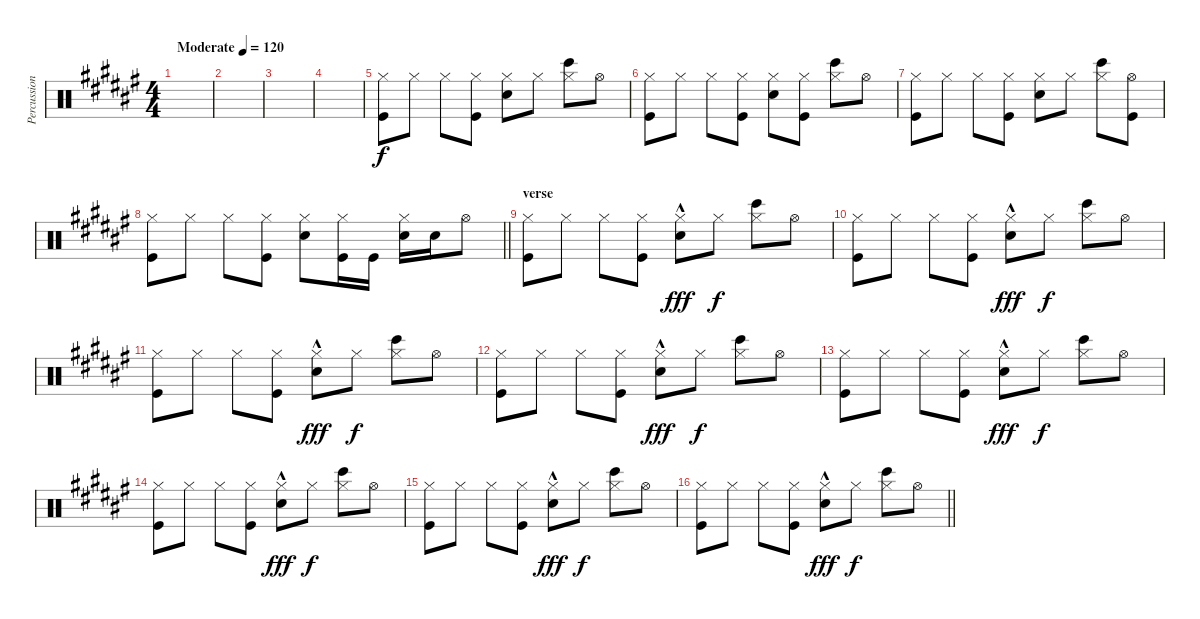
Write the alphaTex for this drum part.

\track ("Percussion" "Percussion") {instrument percussion}
\staff {score}
\articulation defaults
\ts (4 4)
\tempo (120 "Moderate")
\clef neutral
\ks f#
|
|
|
|
("Kick (hit)" "Hi-Hat (closed)").8 "Hi-Hat (closed)".8 "Hi-Hat (closed)".8 ("Kick (hit)" "Hi-Hat (closed)").8 ("Hand Clap (hit)" "Hi-Hat (closed)").8 "Hi-Hat (closed)".8 ("Bongo High (hit)" "Hi-Hat (closed)").8 "Hi-Hat (open)".8 |
("Kick (hit)" "Hi-Hat (closed)").8 "Hi-Hat (closed)".8 "Hi-Hat (closed)".8 ("Kick (hit)" "Hi-Hat (closed)").8 ("Hand Clap (hit)" "Hi-Hat (closed)").8 ("Hi-Hat (closed)" "Kick (hit)").8 ("Bongo High (hit)" "Hi-Hat (closed)").8 "Hi-Hat (open)".8 |
("Kick (hit)" "Hi-Hat (closed)").8 "Hi-Hat (closed)".8 "Hi-Hat (closed)".8 ("Kick (hit)" "Hi-Hat (closed)").8 ("Hand Clap (hit)" "Hi-Hat (closed)").8 "Hi-Hat (closed)".8 ("Bongo High (hit)" "Hi-Hat (closed)").8 ("Kick (hit)" "Hi-Hat (open)").8 |
\barLineRight lightlight
("Kick (hit)" "Hi-Hat (closed)").8 "Hi-Hat (closed)".8 "Hi-Hat (closed)".8 ("Kick (hit)" "Hi-Hat (closed)").8 ("Hand Clap (hit)" "Hi-Hat (closed)").8 ("Hi-Hat (closed)" "Kick (hit)").16 "Kick (hit)".16 ("Electric Snare (hit)" "Hi-Hat (closed)").16 "Electric Snare (hit)".16 "Hi-Hat (open)".8 |
\section ("" "verse")
("Kick (hit)" "Hi-Hat (closed)").8 "Hi-Hat (closed)".8 "Hi-Hat (closed)".8 ("Kick (hit)" "Hi-Hat (closed)").8 ("Electric Snare (hit)"{hac} "Hi-Hat (closed)").8{dy fff} "Hi-Hat (closed)".8{dy f} ("Bongo High (hit)" "Hi-Hat (closed)").8 "Hi-Hat (open)".8 |
("Kick (hit)" "Hi-Hat (closed)").8 "Hi-Hat (closed)".8 "Hi-Hat (closed)".8 ("Kick (hit)" "Hi-Hat (closed)").8 ("Electric Snare (hit)"{hac} "Hi-Hat (closed)").8{dy fff} "Hi-Hat (closed)".8{dy f} ("Bongo High (hit)" "Hi-Hat (closed)").8 "Hi-Hat (open)".8 |
("Kick (hit)" "Hi-Hat (closed)").8 "Hi-Hat (closed)".8 "Hi-Hat (closed)".8 ("Kick (hit)" "Hi-Hat (closed)").8 ("Electric Snare (hit)"{hac} "Hi-Hat (closed)").8{dy fff} "Hi-Hat (closed)".8{dy f} ("Bongo High (hit)" "Hi-Hat (closed)").8 "Hi-Hat (open)".8 |
("Kick (hit)" "Hi-Hat (closed)").8 "Hi-Hat (closed)".8 "Hi-Hat (closed)".8 ("Kick (hit)" "Hi-Hat (closed)").8 ("Electric Snare (hit)"{hac} "Hi-Hat (closed)").8{dy fff} "Hi-Hat (closed)".8{dy f} ("Bongo High (hit)" "Hi-Hat (closed)").8 "Hi-Hat (open)".8 |
("Kick (hit)" "Hi-Hat (closed)").8 "Hi-Hat (closed)".8 "Hi-Hat (closed)".8 ("Kick (hit)" "Hi-Hat (closed)").8 ("Electric Snare (hit)"{hac} "Hi-Hat (closed)").8{dy fff} "Hi-Hat (closed)".8{dy f} ("Bongo High (hit)" "Hi-Hat (closed)").8 "Hi-Hat (open)".8 |
("Kick (hit)" "Hi-Hat (closed)").8 "Hi-Hat (closed)".8 "Hi-Hat (closed)".8 ("Kick (hit)" "Hi-Hat (closed)").8 ("Electric Snare (hit)"{hac} "Hi-Hat (closed)").8{dy fff} "Hi-Hat (closed)".8{dy f} ("Bongo High (hit)" "Hi-Hat (closed)").8 "Hi-Hat (open)".8 |
("Kick (hit)" "Hi-Hat (closed)").8 "Hi-Hat (closed)".8 "Hi-Hat (closed)".8 ("Kick (hit)" "Hi-Hat (closed)").8 ("Electric Snare (hit)"{hac} "Hi-Hat (closed)").8{dy fff} "Hi-Hat (closed)".8{dy f} ("Bongo High (hit)" "Hi-Hat (closed)").8 "Hi-Hat (open)".8 |
\barLineRight lightlight
("Kick (hit)" "Hi-Hat (closed)").8 "Hi-Hat (closed)".8 "Hi-Hat (closed)".8 ("Kick (hit)" "Hi-Hat (closed)").8 ("Electric Snare (hit)"{hac} "Hi-Hat (closed)").8{dy fff} "Hi-Hat (closed)".8{dy f} ("Bongo High (hit)" "Hi-Hat (closed)").8 "Hi-Hat (open)".8
